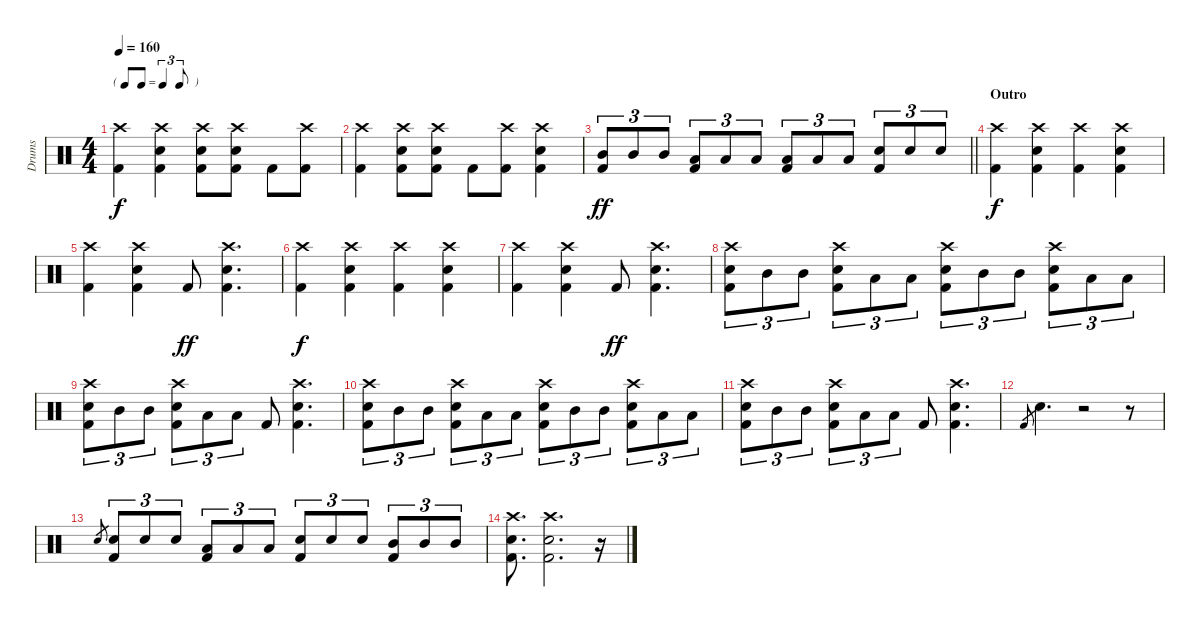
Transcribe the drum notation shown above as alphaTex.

\track ("Drums" "Drums") {instrument percussion}
\staff {score}
\articulation defaults
\ts (4 4)
\tf triplet8th
\tempo 160
\clef neutral
\ks c
("Crash high (hit)" "Kick (hit) 2").4{dy f} ("Crash high (hit)" "Snare (hit) 2" "Kick (hit) 2").4 ("Crash high (hit)" "Snare (hit) 2" "Kick (hit) 2").8 ("Crash high (hit)" "Snare (hit) 2" "Kick (hit) 2").8 "Kick (hit) 2".8 ("Crash high (hit)" "Kick (hit) 2").8 |
("Crash high (hit)" "Kick (hit) 2").4 ("Crash high (hit)" "Snare (hit) 2" "Kick (hit) 2").8 ("Crash high (hit)" "Snare (hit) 2" "Kick (hit) 2").8 "Kick (hit) 2".8 ("Crash high (hit)" "Kick (hit) 2").8 ("Crash high (hit)" "Snare (hit) 2" "Kick (hit) 2").4 |
\barLineRight lightlight
("Mid Tom (hit)" "Kick (hit) 2").8{tu (3 2) dy ff} "Mid Tom (hit)".8{tu (3 2)} "Mid Tom (hit)".8{tu (3 2)} ("Low Tom (hit)" "Kick (hit) 2").8{tu (3 2)} "Low Tom (hit)".8{tu (3 2)} "Low Tom (hit)".8{tu (3 2)} ("Low Floor Tom (hit)" "Kick (hit) 2").8{tu (3 2)} "Low Floor Tom (hit)".8{tu (3 2)} "Low Floor Tom (hit)".8{tu (3 2)} ("Snare (hit) 2" "Kick (hit) 2").8{tu (3 2)} "Snare (hit) 2".8{tu (3 2)} "Snare (hit) 2".8{tu (3 2)} |
\section ("" "Outro")
("Crash high (hit)" "Kick (hit) 2").4{dy f} ("Crash high (hit)" "Snare (hit) 2" "Kick (hit) 2").4 ("Crash high (hit)" "Kick (hit) 2").4 ("Crash high (hit)" "Snare (hit) 2" "Kick (hit) 2").4 |
("Crash high (hit)" "Kick (hit) 2").4 ("Crash high (hit)" "Snare (hit) 2" "Kick (hit) 2").4 "Kick (hit) 2".8{dy ff} ("Crash high (hit)" "Snare (hit) 2" "Kick (hit) 2").4{d} |
("Crash high (hit)" "Kick (hit) 2").4{dy f} ("Crash high (hit)" "Snare (hit) 2" "Kick (hit) 2").4 ("Crash high (hit)" "Kick (hit) 2").4 ("Crash high (hit)" "Snare (hit) 2" "Kick (hit) 2").4 |
("Crash high (hit)" "Kick (hit) 2").4 ("Crash high (hit)" "Snare (hit) 2" "Kick (hit) 2").4 "Kick (hit) 2".8{dy ff} ("Crash high (hit)" "Snare (hit) 2" "Kick (hit) 2").4{d} |
("Crash high (hit)" "Electric Snare (hit)" "Kick (hit) 2").8{tu (3 2)} "Mid Tom (hit)".8{tu (3 2)} "Mid Tom (hit)".8{tu (3 2)} ("Crash high (hit)" "Electric Snare (hit)" "Kick (hit) 2").8{tu (3 2)} "Low Tom (hit)".8{tu (3 2)} "Low Tom (hit)".8{tu (3 2)} ("Crash high (hit)" "Electric Snare (hit)" "Kick (hit) 2").8{tu (3 2)} "Mid Tom (hit)".8{tu (3 2)} "Mid Tom (hit)".8{tu (3 2)} ("Crash high (hit)" "Electric Snare (hit)" "Kick (hit) 2").8{tu (3 2)} "Low Tom (hit)".8{tu (3 2)} "Low Tom (hit)".8{tu (3 2)} |
("Crash high (hit)" "Electric Snare (hit)" "Kick (hit) 2").8{tu (3 2)} "Mid Tom (hit)".8{tu (3 2)} "Mid Tom (hit)".8{tu (3 2)} ("Crash high (hit)" "Electric Snare (hit)" "Kick (hit) 2").8{tu (3 2)} "Low Tom (hit)".8{tu (3 2)} "Low Tom (hit)".8{tu (3 2)} "Kick (hit) 2".8 ("Crash high (hit)" "Snare (hit) 2" "Kick (hit) 2").4{d} |
("Crash high (hit)" "Electric Snare (hit)" "Kick (hit) 2").8{tu (3 2)} "Mid Tom (hit)".8{tu (3 2)} "Mid Tom (hit)".8{tu (3 2)} ("Crash high (hit)" "Electric Snare (hit)" "Kick (hit) 2").8{tu (3 2)} "Low Tom (hit)".8{tu (3 2)} "Low Tom (hit)".8{tu (3 2)} ("Crash high (hit)" "Electric Snare (hit)" "Kick (hit) 2").8{tu (3 2)} "Mid Tom (hit)".8{tu (3 2)} "Mid Tom (hit)".8{tu (3 2)} ("Crash high (hit)" "Electric Snare (hit)" "Kick (hit) 2").8{tu (3 2)} "Low Tom (hit)".8{tu (3 2)} "Low Tom (hit)".8{tu (3 2)} |
("Crash high (hit)" "Electric Snare (hit)" "Kick (hit) 2").8{tu (3 2)} "Mid Tom (hit)".8{tu (3 2)} "Mid Tom (hit)".8{tu (3 2)} ("Crash high (hit)" "Electric Snare (hit)" "Kick (hit) 2").8{tu (3 2)} "Low Tom (hit)".8{tu (3 2)} "Low Tom (hit)".8{tu (3 2)} "Kick (hit) 2".8 ("Crash high (hit)" "Snare (hit) 2" "Kick (hit) 2").4{d} |
"Kick (hit) 2".8{gr} "Electric Snare (hit)".4{d} r.2 r.8 |
"Electric Snare (hit)".8{gr} ("Electric Snare (hit)" "Kick (hit) 2").8{tu (3 2)} "Electric Snare (hit)".8{tu (3 2)} "Electric Snare (hit)".8{tu (3 2)} ("Low Tom (hit)" "Kick (hit) 2").8{tu (3 2)} "Low Tom (hit)".8{tu (3 2)} "Low Tom (hit)".8{tu (3 2)} ("Electric Snare (hit)" "Kick (hit) 2").8{tu (3 2)} "Electric Snare (hit)".8{tu (3 2)} "Electric Snare (hit)".8{tu (3 2)} ("Mid Tom (hit)" "Kick (hit) 2").8{tu (3 2)} "Mid Tom (hit)".8{tu (3 2)} "Mid Tom (hit)".8{tu (3 2)} |
("Crash high (hit)" "Electric Snare (hit)" "Kick (hit) 2").8{d} ("Crash high (hit)" "Electric Snare (hit)" "Kick (hit) 2").2{d} r.16
